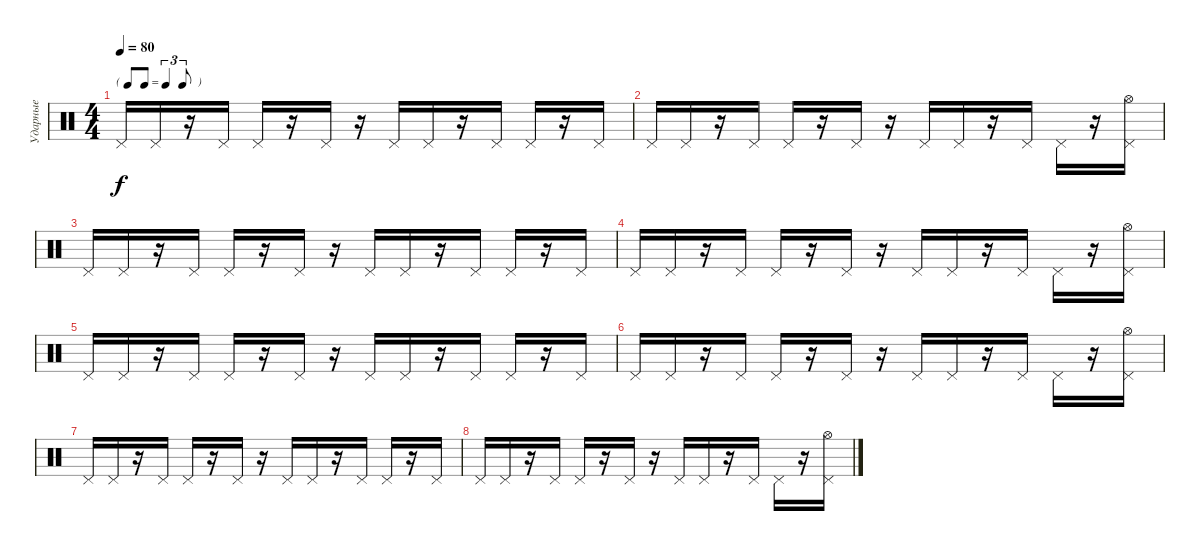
\track ("Ударные" "Ударные") {instrument percussion}
\staff {score}
\articulation defaults
\ts (4 4)
\tf triplet8th
\tempo 80
\clef neutral
\ks c "Pedal Hi-Hat (hit)".16{dy f} "Pedal Hi-Hat (hit)".16
r.16 "Pedal Hi-Hat (hit)".16 "Pedal Hi-Hat (hit)".16 r.16 "Pedal Hi-Hat (hit)".16 r.16 "Pedal Hi-Hat (hit)".16 "Pedal Hi-Hat (hit)".16 r.16 "Pedal Hi-Hat (hit)".16 "Pedal Hi-Hat (hit)".16 r.16 "Pedal Hi-Hat (hit)".16 |
"Pedal Hi-Hat (hit)".16 "Pedal Hi-Hat (hit)".16 r.16 "Pedal Hi-Hat (hit)".16 "Pedal Hi-Hat (hit)".16 r.16 "Pedal Hi-Hat (hit)".16 r.16 "Pedal Hi-Hat (hit)".16 "Pedal Hi-Hat (hit)".16 r.16 "Pedal Hi-Hat (hit)".16 "Pedal Hi-Hat (hit)".16 r.16 ("Pedal Hi-Hat (hit)" "Hi-Hat (open)").16 |
"Pedal Hi-Hat (hit)".16 "Pedal Hi-Hat (hit)".16 r.16 "Pedal Hi-Hat (hit)".16 "Pedal Hi-Hat (hit)".16 r.16 "Pedal Hi-Hat (hit)".16 r.16 "Pedal Hi-Hat (hit)".16 "Pedal Hi-Hat (hit)".16 r.16 "Pedal Hi-Hat (hit)".16 "Pedal Hi-Hat (hit)".16 r.16 "Pedal Hi-Hat (hit)".16 |
"Pedal Hi-Hat (hit)".16 "Pedal Hi-Hat (hit)".16 r.16 "Pedal Hi-Hat (hit)".16 "Pedal Hi-Hat (hit)".16 r.16 "Pedal Hi-Hat (hit)".16 r.16 "Pedal Hi-Hat (hit)".16 "Pedal Hi-Hat (hit)".16 r.16 "Pedal Hi-Hat (hit)".16 "Pedal Hi-Hat (hit)".16 r.16 ("Pedal Hi-Hat (hit)" "Hi-Hat (open)").16 |
"Pedal Hi-Hat (hit)".16 "Pedal Hi-Hat (hit)".16 r.16 "Pedal Hi-Hat (hit)".16 "Pedal Hi-Hat (hit)".16 r.16 "Pedal Hi-Hat (hit)".16 r.16 "Pedal Hi-Hat (hit)".16 "Pedal Hi-Hat (hit)".16 r.16 "Pedal Hi-Hat (hit)".16 "Pedal Hi-Hat (hit)".16 r.16 "Pedal Hi-Hat (hit)".16 |
"Pedal Hi-Hat (hit)".16 "Pedal Hi-Hat (hit)".16 r.16 "Pedal Hi-Hat (hit)".16 "Pedal Hi-Hat (hit)".16 r.16 "Pedal Hi-Hat (hit)".16 r.16 "Pedal Hi-Hat (hit)".16 "Pedal Hi-Hat (hit)".16 r.16 "Pedal Hi-Hat (hit)".16 "Pedal Hi-Hat (hit)".16 r.16 ("Pedal Hi-Hat (hit)" "Hi-Hat (open)").16 |
"Pedal Hi-Hat (hit)".16 "Pedal Hi-Hat (hit)".16 r.16 "Pedal Hi-Hat (hit)".16 "Pedal Hi-Hat (hit)".16 r.16 "Pedal Hi-Hat (hit)".16 r.16 "Pedal Hi-Hat (hit)".16 "Pedal Hi-Hat (hit)".16 r.16 "Pedal Hi-Hat (hit)".16 "Pedal Hi-Hat (hit)".16 r.16 "Pedal Hi-Hat (hit)".16 |
"Pedal Hi-Hat (hit)".16 "Pedal Hi-Hat (hit)".16 r.16 "Pedal Hi-Hat (hit)".16 "Pedal Hi-Hat (hit)".16 r.16 "Pedal Hi-Hat (hit)".16 r.16 "Pedal Hi-Hat (hit)".16 "Pedal Hi-Hat (hit)".16 r.16 "Pedal Hi-Hat (hit)".16 "Pedal Hi-Hat (hit)".16 r.16 ("Pedal Hi-Hat (hit)" "Hi-Hat (open)").16
